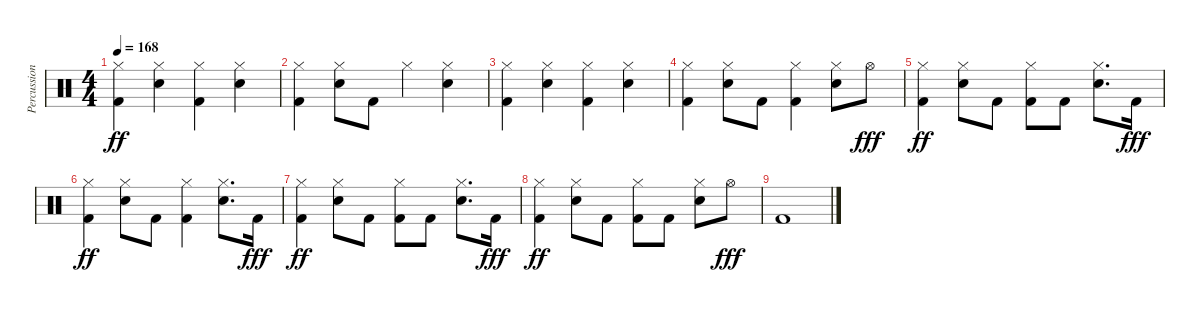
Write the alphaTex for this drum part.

\track ("Percussion" "Percussion") {instrument percussion}
\staff {score}
\articulation defaults
\ts (4 4)
\tempo 168
\clef neutral
\ks c
("Kick (hit) 2" "Hi-Hat (closed)").4{dy ff} ("Snare (hit) 2" "Hi-Hat (closed)").4 ("Kick (hit) 2" "Hi-Hat (closed)").4 ("Snare (hit) 2" "Hi-Hat (closed)").4 |
("Kick (hit) 2" "Hi-Hat (closed)").4 ("Snare (hit) 2" "Hi-Hat (closed)").8 "Kick (hit) 2".8 "Hi-Hat (closed)".4 ("Snare (hit) 2" "Hi-Hat (closed)").4 |
("Kick (hit) 2" "Hi-Hat (closed)").4 ("Snare (hit) 2" "Hi-Hat (closed)").4 ("Kick (hit) 2" "Hi-Hat (closed)").4 ("Snare (hit) 2" "Hi-Hat (closed)").4 |
("Kick (hit) 2" "Hi-Hat (closed)").4 ("Snare (hit) 2" "Hi-Hat (closed)").8 "Kick (hit) 2".8 ("Kick (hit) 2" "Hi-Hat (closed)").4 ("Snare (hit) 2" "Hi-Hat (closed)").8 "Hi-Hat (open)".8{dy fff} |
("Kick (hit) 2" "Hi-Hat (closed)").4{dy ff} ("Snare (hit) 2" "Hi-Hat (closed)").8 "Kick (hit) 2".8 ("Kick (hit) 2" "Hi-Hat (closed)").8 "Kick (hit) 2".8 ("Snare (hit) 2" "Hi-Hat (closed)").8{d} "Kick (hit) 2".16{dy fff} |
("Kick (hit) 2" "Hi-Hat (closed)").4{dy ff} ("Snare (hit) 2" "Hi-Hat (closed)").8 "Kick (hit) 2".8 ("Kick (hit) 2" "Hi-Hat (closed)").4 ("Snare (hit) 2" "Hi-Hat (closed)").8{d} "Kick (hit) 2".16{dy fff} |
("Kick (hit) 2" "Hi-Hat (closed)").4{dy ff} ("Snare (hit) 2" "Hi-Hat (closed)").8 "Kick (hit) 2".8 ("Kick (hit) 2" "Hi-Hat (closed)").8 "Kick (hit) 2".8 ("Snare (hit) 2" "Hi-Hat (closed)").8{d} "Kick (hit) 2".16{dy fff} |
("Kick (hit) 2" "Hi-Hat (closed)").4{dy ff} ("Snare (hit) 2" "Hi-Hat (closed)").8 "Kick (hit) 2".8 ("Kick (hit) 2" "Hi-Hat (closed)").8 "Kick (hit) 2".8 ("Snare (hit) 2" "Hi-Hat (closed)").8 "Hi-Hat (open)".8{dy fff} |
"Kick (hit) 2".1
